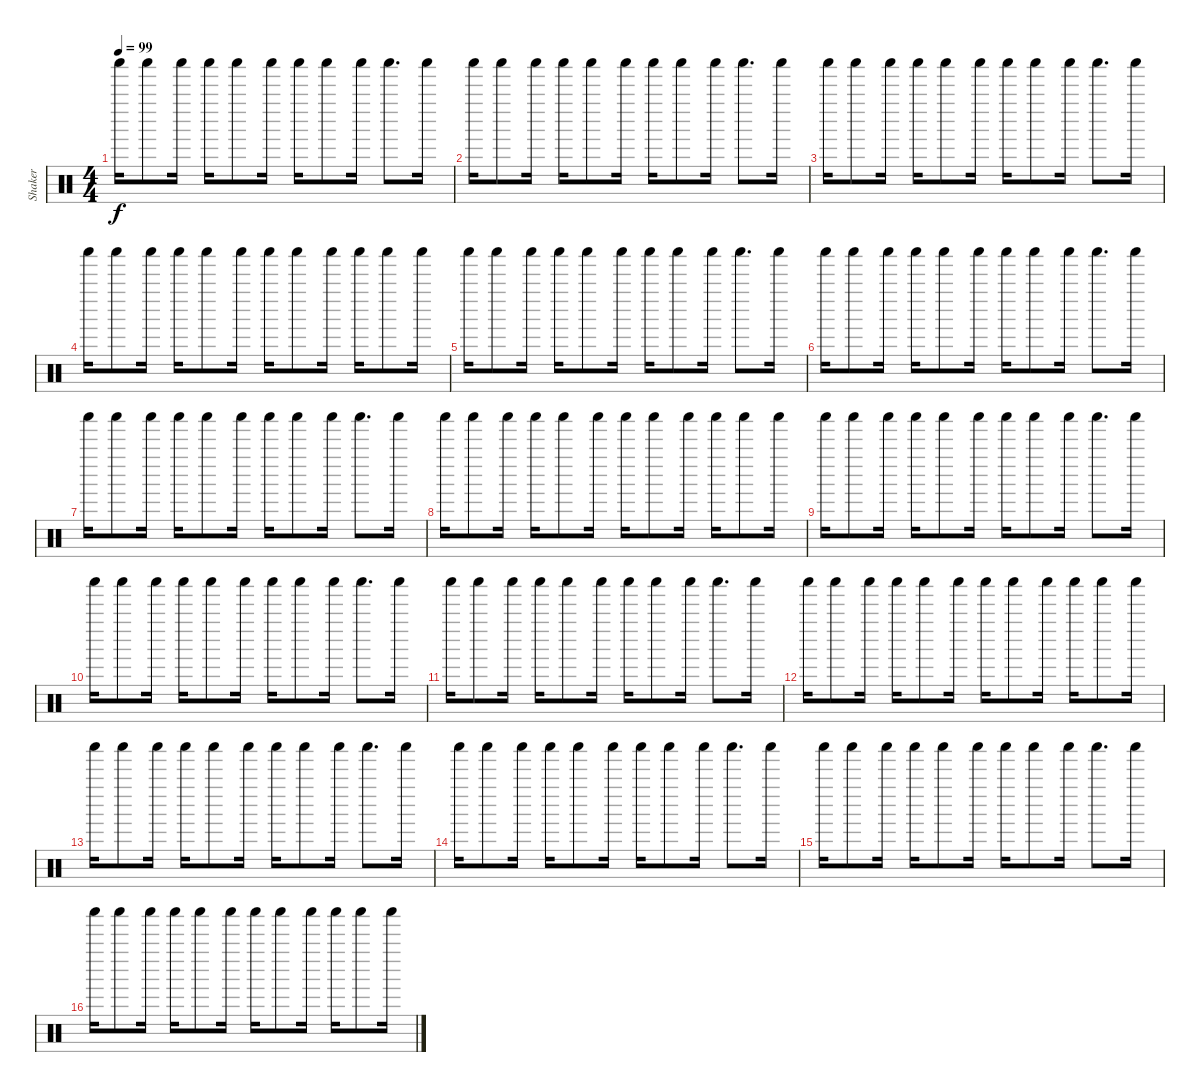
\track ("Shaker" "Shaker") {instrument percussion}
\staff {score}
\articulation defaults
\ts (4 4)
\tempo 99
\clef neutral
\ks c "Shaker (hit)".16{dy f} "Shaker (hit)".8 "Shaker (hit)".16 "Shaker (hit)".16 "Shaker (hit)".8 "Shaker (hit)".16 "Shaker (hit)".16 "Shaker (hit)".8 "Shaker (hit)".16 "Shaker (hit)".8{d} "Shaker (hit)".16
|
"Shaker (hit)".16 "Shaker (hit)".8 "Shaker (hit)".16 "Shaker (hit)".16 "Shaker (hit)".8 "Shaker (hit)".16 "Shaker (hit)".16 "Shaker (hit)".8 "Shaker (hit)".16 "Shaker (hit)".8{d} "Shaker (hit)".16 |
"Shaker (hit)".16 "Shaker (hit)".8 "Shaker (hit)".16 "Shaker (hit)".16 "Shaker (hit)".8 "Shaker (hit)".16 "Shaker (hit)".16 "Shaker (hit)".8 "Shaker (hit)".16 "Shaker (hit)".8{d} "Shaker (hit)".16 |
"Shaker (hit)".16 "Shaker (hit)".8 "Shaker (hit)".16 "Shaker (hit)".16 "Shaker (hit)".8 "Shaker (hit)".16 "Shaker (hit)".16 "Shaker (hit)".8 "Shaker (hit)".16 "Shaker (hit)".16 "Shaker (hit)".8 "Shaker (hit)".16 |
"Shaker (hit)".16 "Shaker (hit)".8 "Shaker (hit)".16 "Shaker (hit)".16 "Shaker (hit)".8 "Shaker (hit)".16 "Shaker (hit)".16 "Shaker (hit)".8 "Shaker (hit)".16 "Shaker (hit)".8{d} "Shaker (hit)".16 |
"Shaker (hit)".16 "Shaker (hit)".8 "Shaker (hit)".16 "Shaker (hit)".16 "Shaker (hit)".8 "Shaker (hit)".16 "Shaker (hit)".16 "Shaker (hit)".8 "Shaker (hit)".16 "Shaker (hit)".8{d} "Shaker (hit)".16 |
"Shaker (hit)".16 "Shaker (hit)".8 "Shaker (hit)".16 "Shaker (hit)".16 "Shaker (hit)".8 "Shaker (hit)".16 "Shaker (hit)".16 "Shaker (hit)".8 "Shaker (hit)".16 "Shaker (hit)".8{d} "Shaker (hit)".16 |
"Shaker (hit)".16 "Shaker (hit)".8 "Shaker (hit)".16 "Shaker (hit)".16 "Shaker (hit)".8 "Shaker (hit)".16 "Shaker (hit)".16 "Shaker (hit)".8 "Shaker (hit)".16 "Shaker (hit)".16 "Shaker (hit)".8 "Shaker (hit)".16 |
"Shaker (hit)".16 "Shaker (hit)".8 "Shaker (hit)".16 "Shaker (hit)".16 "Shaker (hit)".8 "Shaker (hit)".16 "Shaker (hit)".16 "Shaker (hit)".8 "Shaker (hit)".16 "Shaker (hit)".8{d} "Shaker (hit)".16 |
"Shaker (hit)".16 "Shaker (hit)".8 "Shaker (hit)".16 "Shaker (hit)".16 "Shaker (hit)".8 "Shaker (hit)".16 "Shaker (hit)".16 "Shaker (hit)".8 "Shaker (hit)".16 "Shaker (hit)".8{d} "Shaker (hit)".16 |
"Shaker (hit)".16 "Shaker (hit)".8 "Shaker (hit)".16 "Shaker (hit)".16 "Shaker (hit)".8 "Shaker (hit)".16 "Shaker (hit)".16 "Shaker (hit)".8 "Shaker (hit)".16 "Shaker (hit)".8{d} "Shaker (hit)".16 |
"Shaker (hit)".16 "Shaker (hit)".8 "Shaker (hit)".16 "Shaker (hit)".16 "Shaker (hit)".8 "Shaker (hit)".16 "Shaker (hit)".16 "Shaker (hit)".8 "Shaker (hit)".16 "Shaker (hit)".16 "Shaker (hit)".8 "Shaker (hit)".16 |
"Shaker (hit)".16 "Shaker (hit)".8 "Shaker (hit)".16 "Shaker (hit)".16 "Shaker (hit)".8 "Shaker (hit)".16 "Shaker (hit)".16 "Shaker (hit)".8 "Shaker (hit)".16 "Shaker (hit)".8{d} "Shaker (hit)".16 |
"Shaker (hit)".16 "Shaker (hit)".8 "Shaker (hit)".16 "Shaker (hit)".16 "Shaker (hit)".8 "Shaker (hit)".16 "Shaker (hit)".16 "Shaker (hit)".8 "Shaker (hit)".16 "Shaker (hit)".8{d} "Shaker (hit)".16 |
"Shaker (hit)".16 "Shaker (hit)".8 "Shaker (hit)".16 "Shaker (hit)".16 "Shaker (hit)".8 "Shaker (hit)".16 "Shaker (hit)".16 "Shaker (hit)".8 "Shaker (hit)".16 "Shaker (hit)".8{d} "Shaker (hit)".16 |
"Shaker (hit)".16 "Shaker (hit)".8 "Shaker (hit)".16 "Shaker (hit)".16 "Shaker (hit)".8 "Shaker (hit)".16 "Shaker (hit)".16 "Shaker (hit)".8 "Shaker (hit)".16 "Shaker (hit)".16 "Shaker (hit)".8 "Shaker (hit)".16
